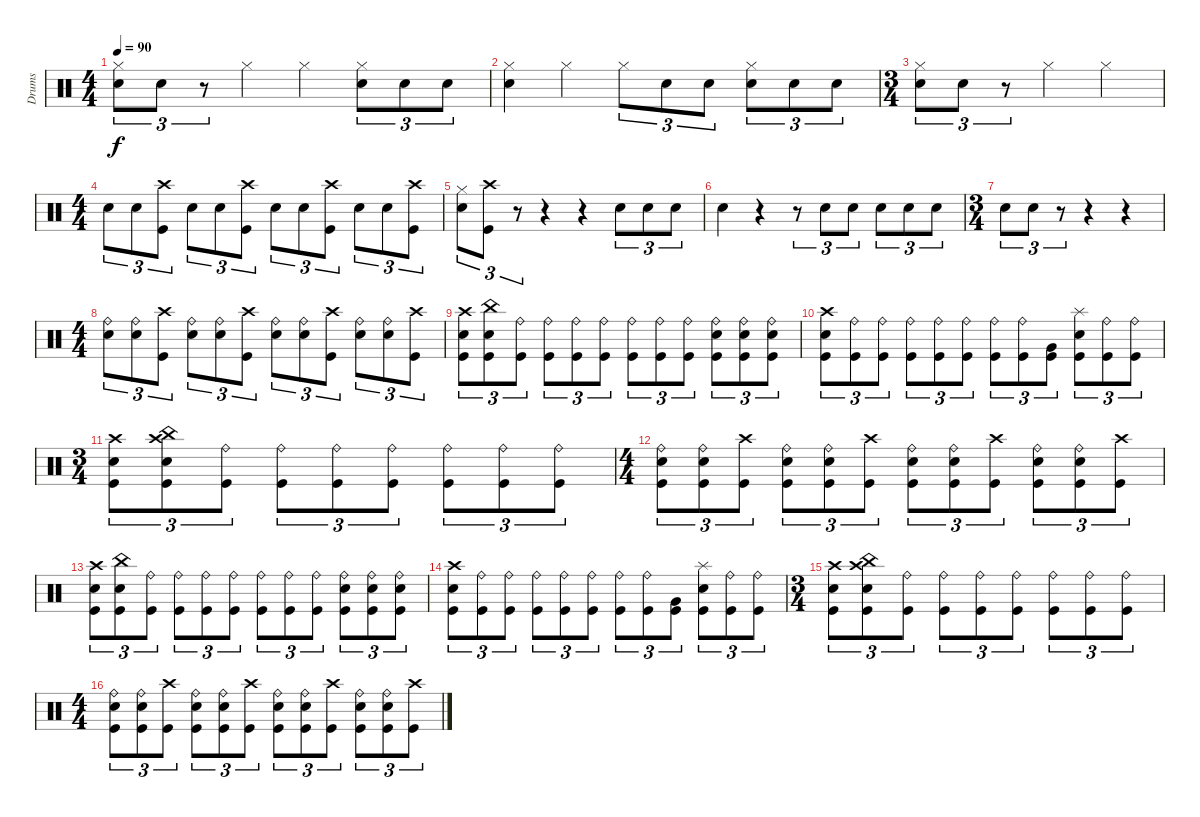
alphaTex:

\track ("Drums" "Drums") {instrument percussion}
\staff {score}
\articulation defaults
\ts (4 4)
\tempo 90
\clef neutral
\ks c
("Hi-Hat (closed)" "Electric Snare (hit)").8{tu (3 2) dy f} "Electric Snare (hit)".8{tu (3 2)} r.8{tu (3 2)} "Hi-Hat (closed)".4 "Hi-Hat (closed)".4 ("Hi-Hat (closed)" "Electric Snare (hit)").8{tu (3 2)} "Electric Snare (hit)".8{tu (3 2)} "Electric Snare (hit)".8{tu (3 2)} |
("Hi-Hat (closed)" "Electric Snare (hit)").4 "Hi-Hat (closed)".4 "Hi-Hat (closed)".8{tu (3 2)} "Electric Snare (hit)".8{tu (3 2)} "Electric Snare (hit)".8{tu (3 2)} ("Hi-Hat (closed)" "Electric Snare (hit)").8{tu (3 2)} "Electric Snare (hit)".8{tu (3 2)} "Electric Snare (hit)".8{tu (3 2)} |
\ts (3 4)
("Hi-Hat (closed)" "Electric Snare (hit)").8{tu (3 2)} "Electric Snare (hit)".8{tu (3 2)} r.8{tu (3 2)} "Hi-Hat (closed)".4 "Hi-Hat (closed)".4 |
\ts (4 4)
"Electric Snare (hit)".8{tu (3 2)} "Electric Snare (hit)".8{tu (3 2)} ("Crash high (hit)" "Kick (hit)").8{tu (3 2)} "Electric Snare (hit)".8{tu (3 2)} "Electric Snare (hit)".8{tu (3 2)} ("Crash high (hit)" "Kick (hit)").8{tu (3 2)} "Electric Snare (hit)".8{tu (3 2)} "Electric Snare (hit)".8{tu (3 2)} ("Crash high (hit)" "Kick (hit)").8{tu (3 2)} "Electric Snare (hit)".8{tu (3 2)} "Electric Snare (hit)".8{tu (3 2)} ("Crash high (hit)" "Kick (hit)").8{tu (3 2)} |
("Hi-Hat (closed)" "Electric Snare (hit)").8{tu (3 2)} ("Crash high (hit)" "Kick (hit)").8{tu (3 2)} r.8{tu (3 2)} r.4 r.4 "Electric Snare (hit)".8{tu (3 2)} "Electric Snare (hit)".8{tu (3 2)} "Electric Snare (hit)".8{tu (3 2)} |
"Electric Snare (hit)".4 r.4 r.8{tu (3 2)} "Electric Snare (hit)".8{tu (3 2)} "Electric Snare (hit)".8{tu (3 2)} "Electric Snare (hit)".8{tu (3 2)} "Electric Snare (hit)".8{tu (3 2)} "Electric Snare (hit)".8{tu (3 2)} |
\ts (3 4)
"Electric Snare (hit)".8{tu (3 2)} "Electric Snare (hit)".8{tu (3 2)} r.8{tu (3 2)} r.4 r.4 |
\ts (4 4)
("Ride (bell)" "Electric Snare (hit)").8{tu (3 2)} ("Ride (bell)" "Electric Snare (hit)").8{tu (3 2)} ("Crash high (hit)" "Kick (hit)").8{tu (3 2)} ("Ride (bell)" "Electric Snare (hit)").8{tu (3 2)} ("Ride (bell)" "Electric Snare (hit)").8{tu (3 2)} ("Crash high (hit)" "Kick (hit)").8{tu (3 2)} ("Ride (bell)" "Electric Snare (hit)").8{tu (3 2)} ("Ride (bell)" "Electric Snare (hit)").8{tu (3 2)} ("Crash high (hit)" "Kick (hit)").8{tu (3 2)} ("Ride (bell)" "Electric Snare (hit)").8{tu (3 2)} ("Ride (bell)" "Electric Snare (hit)").8{tu (3 2)} ("Crash high (hit)" "Kick (hit)").8{tu (3 2)} |
("Crash high (hit)" "Electric Snare (hit)" "Kick (hit)").8{tu (3 2)} ("China (hit)" "Electric Snare (hit)" "Kick (hit)").8{tu (3 2)} ("Ride (bell)" "Kick (hit)").8{tu (3 2)} ("Ride (bell)" "Kick (hit)").8{tu (3 2)} ("Ride (bell)" "Kick (hit)").8{tu (3 2)} ("Ride (bell)" "Kick (hit)").8{tu (3 2)} ("Ride (bell)" "Kick (hit)").8{tu (3 2)} ("Ride (bell)" "Kick (hit)").8{tu (3 2)} ("Ride (bell)" "Kick (hit)").8{tu (3 2)} ("Ride (bell)" "Electric Snare (hit)" "Kick (hit)").8{tu (3 2)} ("Ride (bell)" "Electric Snare (hit)" "Kick (hit)").8{tu (3 2)} ("Ride (bell)" "Electric Snare (hit)" "Kick (hit)").8{tu (3 2)} |
("Crash high (hit)" "Electric Snare (hit)" "Kick (hit)").8{tu (3 2)} ("Ride (bell)" "Kick (hit)").8{tu (3 2)} ("Ride (bell)" "Kick (hit)").8{tu (3 2)} ("Ride (bell)" "Kick (hit)").8{tu (3 2)} ("Ride (bell)" "Kick (hit)").8{tu (3 2)} ("Ride (bell)" "Kick (hit)").8{tu (3 2)} ("Ride (bell)" "Kick (hit)").8{tu (3 2)} ("Ride (bell)" "Kick (hit)").8{tu (3 2)} ("Very Low Tom (hit)" "Kick (hit)").8{tu (3 2)} ("Splash (hit)" "Electric Snare (hit)" "Kick (hit)").8{tu (3 2)} ("Ride (bell)" "Kick (hit)").8{tu (3 2)} ("Ride (bell)" "Kick (hit)").8{tu (3 2)} |
\ts (3 4)
("Crash high (hit)" "Electric Snare (hit)" "Kick (hit)").8{tu (3 2)} ("Crash high (hit)" "China (hit)" "Electric Snare (hit)" "Kick (hit)").8{tu (3 2)} ("Ride (bell)" "Kick (hit)").8{tu (3 2)} ("Ride (bell)" "Kick (hit)").8{tu (3 2)} ("Ride (bell)" "Kick (hit)").8{tu (3 2)} ("Ride (bell)" "Kick (hit)").8{tu (3 2)} ("Ride (bell)" "Kick (hit)").8{tu (3 2)} ("Ride (bell)" "Kick (hit)").8{tu (3 2)} ("Ride (bell)" "Kick (hit)").8{tu (3 2)} |
\ts (4 4)
("Ride (bell)" "Electric Snare (hit)" "Kick (hit)").8{tu (3 2)} ("Ride (bell)" "Electric Snare (hit)" "Kick (hit)").8{tu (3 2)} ("Crash high (hit)" "Kick (hit)").8{tu (3 2)} ("Ride (bell)" "Electric Snare (hit)" "Kick (hit)").8{tu (3 2)} ("Ride (bell)" "Electric Snare (hit)" "Kick (hit)").8{tu (3 2)} ("Crash high (hit)" "Kick (hit)").8{tu (3 2)} ("Ride (bell)" "Electric Snare (hit)" "Kick (hit)").8{tu (3 2)} ("Ride (bell)" "Electric Snare (hit)" "Kick (hit)").8{tu (3 2)} ("Crash high (hit)" "Kick (hit)").8{tu (3 2)} ("Ride (bell)" "Electric Snare (hit)" "Kick (hit)").8{tu (3 2)} ("Ride (bell)" "Electric Snare (hit)" "Kick (hit)").8{tu (3 2)} ("Crash high (hit)" "Kick (hit)").8{tu (3 2)} |
("Crash high (hit)" "Electric Snare (hit)" "Kick (hit)").8{tu (3 2)} ("China (hit)" "Electric Snare (hit)" "Kick (hit)").8{tu (3 2)} ("Ride (bell)" "Kick (hit)").8{tu (3 2)} ("Ride (bell)" "Kick (hit)").8{tu (3 2)} ("Ride (bell)" "Kick (hit)").8{tu (3 2)} ("Ride (bell)" "Kick (hit)").8{tu (3 2)} ("Ride (bell)" "Kick (hit)").8{tu (3 2)} ("Ride (bell)" "Kick (hit)").8{tu (3 2)} ("Ride (bell)" "Kick (hit)").8{tu (3 2)} ("Ride (bell)" "Electric Snare (hit)" "Kick (hit)").8{tu (3 2)} ("Ride (bell)" "Electric Snare (hit)" "Kick (hit)").8{tu (3 2)} ("Ride (bell)" "Electric Snare (hit)" "Kick (hit)").8{tu (3 2)} |
("Crash high (hit)" "Electric Snare (hit)" "Kick (hit)").8{tu (3 2)} ("Ride (bell)" "Kick (hit)").8{tu (3 2)} ("Ride (bell)" "Kick (hit)").8{tu (3 2)} ("Ride (bell)" "Kick (hit)").8{tu (3 2)} ("Ride (bell)" "Kick (hit)").8{tu (3 2)} ("Ride (bell)" "Kick (hit)").8{tu (3 2)} ("Ride (bell)" "Kick (hit)").8{tu (3 2)} ("Ride (bell)" "Kick (hit)").8{tu (3 2)} ("Very Low Tom (hit)" "Kick (hit)").8{tu (3 2)} ("Splash (hit)" "Electric Snare (hit)" "Kick (hit)").8{tu (3 2)} ("Ride (bell)" "Kick (hit)").8{tu (3 2)} ("Ride (bell)" "Kick (hit)").8{tu (3 2)} |
\ts (3 4)
("Crash high (hit)" "Electric Snare (hit)" "Kick (hit)").8{tu (3 2)} ("Crash high (hit)" "China (hit)" "Electric Snare (hit)" "Kick (hit)").8{tu (3 2)} ("Ride (bell)" "Kick (hit)").8{tu (3 2)} ("Ride (bell)" "Kick (hit)").8{tu (3 2)} ("Ride (bell)" "Kick (hit)").8{tu (3 2)} ("Ride (bell)" "Kick (hit)").8{tu (3 2)} ("Ride (bell)" "Kick (hit)").8{tu (3 2)} ("Ride (bell)" "Kick (hit)").8{tu (3 2)} ("Ride (bell)" "Kick (hit)").8{tu (3 2)} |
\ts (4 4)
("Ride (bell)" "Electric Snare (hit)" "Kick (hit)").8{tu (3 2)} ("Ride (bell)" "Electric Snare (hit)" "Kick (hit)").8{tu (3 2)} ("Crash high (hit)" "Kick (hit)").8{tu (3 2)} ("Ride (bell)" "Electric Snare (hit)" "Kick (hit)").8{tu (3 2)} ("Ride (bell)" "Electric Snare (hit)" "Kick (hit)").8{tu (3 2)} ("Crash high (hit)" "Kick (hit)").8{tu (3 2)} ("Ride (bell)" "Electric Snare (hit)" "Kick (hit)").8{tu (3 2)} ("Ride (bell)" "Electric Snare (hit)" "Kick (hit)").8{tu (3 2)} ("Crash high (hit)" "Kick (hit)").8{tu (3 2)} ("Ride (bell)" "Electric Snare (hit)" "Kick (hit)").8{tu (3 2)} ("Ride (bell)" "Electric Snare (hit)" "Kick (hit)").8{tu (3 2)} ("Crash high (hit)" "Kick (hit)").8{tu (3 2)}
